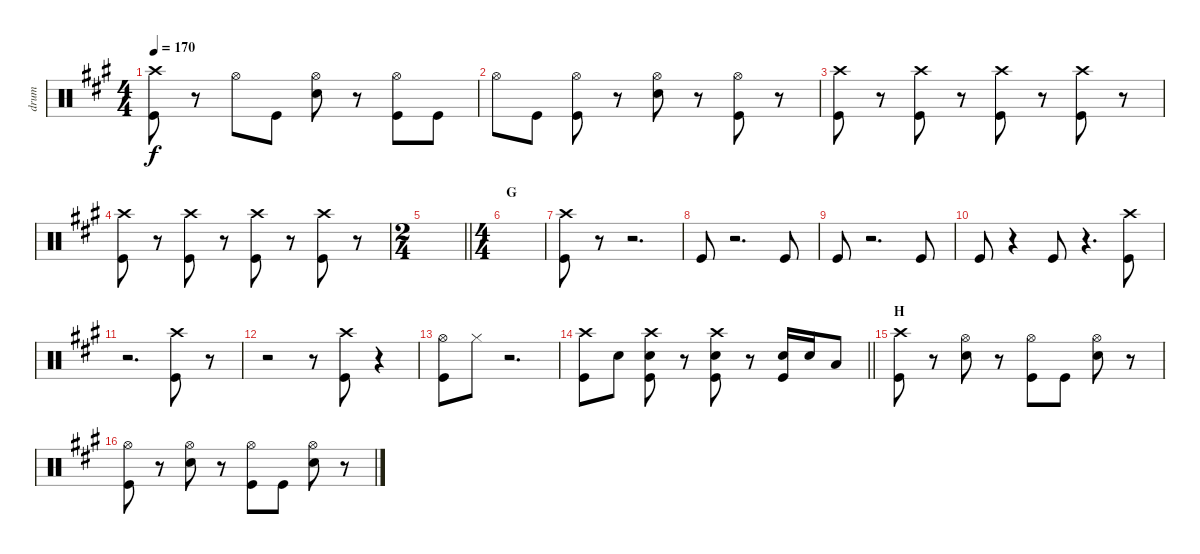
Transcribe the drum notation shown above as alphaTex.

\track ("drum" "drum") {instrument percussion}
\staff {score}
\articulation defaults
\ts (4 4)
\tempo 170
\clef neutral
\ks a
("Crash high (hit)" "Kick (hit)").8{dy f} r.8 "Hi-Hat (open)".8 "Kick (hit)".8 ("Hi-Hat (open)" "Snare (hit) 2").8 r.8 ("Hi-Hat (open)" "Kick (hit)").8 "Kick (hit)".8 |
"Hi-Hat (open)".8 "Kick (hit)".8 ("Hi-Hat (open)" "Kick (hit)").8 r.8 ("Hi-Hat (open)" "Snare (hit) 2").8 r.8 ("Hi-Hat (open)" "Kick (hit)").8 r.8 |
("Crash high (hit)" "Kick (hit)").8 r.8 ("Crash high (hit)" "Kick (hit)").8 r.8 ("Crash high (hit)" "Kick (hit)").8 r.8 ("Crash high (hit)" "Kick (hit)").8 r.8 |
("Crash high (hit)" "Kick (hit)").8 r.8 ("Crash high (hit)" "Kick (hit)").8 r.8 ("Crash high (hit)" "Kick (hit)").8 r.8 ("Crash high (hit)" "Kick (hit)").8 r.8 |
\ts (2 4)
\barLineRight lightlight
|
\ts (4 4)
\section ("" "G")
|
("Crash high (hit)" "Kick (hit)").8 r.8 r.2{d} |
"Kick (hit)".8 r.2{d} "Kick (hit)".8 |
"Kick (hit)".8 r.2{d} "Kick (hit)".8 |
"Kick (hit)".8 r.4 "Kick (hit)".8 r.4{d} ("Crash high (hit)" "Kick (hit)").8 |
r.2{d} ("Crash high (hit)" "Kick (hit)").8 r.8 |
r.2 r.8 ("Crash high (hit)" "Kick (hit)").8 r.4 |
("Hi-Hat (open)" "Kick (hit)").8 "Hi-Hat (closed)".8 r.2{d} |
\barLineRight lightlight
("Crash high (hit)" "Kick (hit)").8 "Snare (hit) 2".8 ("Crash high (hit)" "Snare (hit) 2" "Kick (hit)").8 r.8 ("Crash high (hit)" "Snare (hit) 2" "Kick (hit)").8 r.8 ("Snare (hit) 2" "Kick (hit)").16 "Snare (hit) 2".16 "Low Tom (hit)".8 |
\section ("" "H")
("Crash high (hit)" "Kick (hit)").8 r.8 ("Hi-Hat (open)" "Snare (hit) 2").8 r.8 ("Hi-Hat (open)" "Kick (hit)").8 "Kick (hit)".8 ("Hi-Hat (open)" "Snare (hit) 2").8 r.8 |
("Hi-Hat (open)" "Kick (hit)").8 r.8 ("Hi-Hat (open)" "Snare (hit) 2").8 r.8 ("Hi-Hat (open)" "Kick (hit)").8 "Kick (hit)".8 ("Hi-Hat (open)" "Snare (hit) 2").8 r.8
